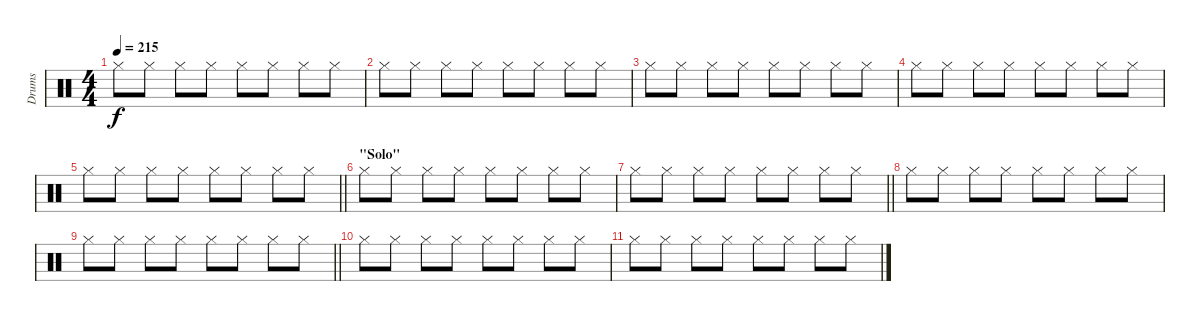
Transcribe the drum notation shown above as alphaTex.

\track ("Drums" "Drums") {instrument percussion}
\staff {score}
\articulation defaults
\ts (4 4)
\tempo 215
\clef neutral
\ks c "Hi-Hat (closed)".8{dy f} "Hi-Hat (closed)".8 "Hi-Hat (closed)".8 "Hi-Hat (closed)".8 "Hi-Hat (closed)".8 "Hi-Hat (closed)".8 "Hi-Hat (closed)".8 "Hi-Hat (closed)".8
|
"Hi-Hat (closed)".8 "Hi-Hat (closed)".8 "Hi-Hat (closed)".8 "Hi-Hat (closed)".8 "Hi-Hat (closed)".8 "Hi-Hat (closed)".8 "Hi-Hat (closed)".8 "Hi-Hat (closed)".8 |
"Hi-Hat (closed)".8 "Hi-Hat (closed)".8 "Hi-Hat (closed)".8 "Hi-Hat (closed)".8 "Hi-Hat (closed)".8 "Hi-Hat (closed)".8 "Hi-Hat (closed)".8 "Hi-Hat (closed)".8 |
"Hi-Hat (closed)".8 "Hi-Hat (closed)".8 "Hi-Hat (closed)".8 "Hi-Hat (closed)".8 "Hi-Hat (closed)".8 "Hi-Hat (closed)".8 "Hi-Hat (closed)".8 "Hi-Hat (closed)".8 |
\barLineRight lightlight "Hi-Hat (closed)".8 "Hi-Hat (closed)".8 "Hi-Hat (closed)".8 "Hi-Hat (closed)".8 "Hi-Hat (closed)".8 "Hi-Hat (closed)".8 "Hi-Hat (closed)".8 "Hi-Hat (closed)".8
|
\section ("" "\"Solo\"")
"Hi-Hat (closed)".8 "Hi-Hat (closed)".8 "Hi-Hat (closed)".8 "Hi-Hat (closed)".8 "Hi-Hat (closed)".8 "Hi-Hat (closed)".8 "Hi-Hat (closed)".8 "Hi-Hat (closed)".8 |
\barLineRight lightlight "Hi-Hat (closed)".8 "Hi-Hat (closed)".8 "Hi-Hat (closed)".8 "Hi-Hat (closed)".8 "Hi-Hat (closed)".8 "Hi-Hat (closed)".8 "Hi-Hat (closed)".8 "Hi-Hat (closed)".8
|
"Hi-Hat (closed)".8 "Hi-Hat (closed)".8 "Hi-Hat (closed)".8 "Hi-Hat (closed)".8 "Hi-Hat (closed)".8 "Hi-Hat (closed)".8 "Hi-Hat (closed)".8 "Hi-Hat (closed)".8 |
\barLineRight lightlight "Hi-Hat (closed)".8 "Hi-Hat (closed)".8 "Hi-Hat (closed)".8 "Hi-Hat (closed)".8 "Hi-Hat (closed)".8 "Hi-Hat (closed)".8 "Hi-Hat (closed)".8 "Hi-Hat (closed)".8
|
"Hi-Hat (closed)".8 "Hi-Hat (closed)".8 "Hi-Hat (closed)".8 "Hi-Hat (closed)".8 "Hi-Hat (closed)".8 "Hi-Hat (closed)".8 "Hi-Hat (closed)".8 "Hi-Hat (closed)".8 |
"Hi-Hat (closed)".8 "Hi-Hat (closed)".8 "Hi-Hat (closed)".8 "Hi-Hat (closed)".8 "Hi-Hat (closed)".8 "Hi-Hat (closed)".8 "Hi-Hat (closed)".8 "Hi-Hat (closed)".8
